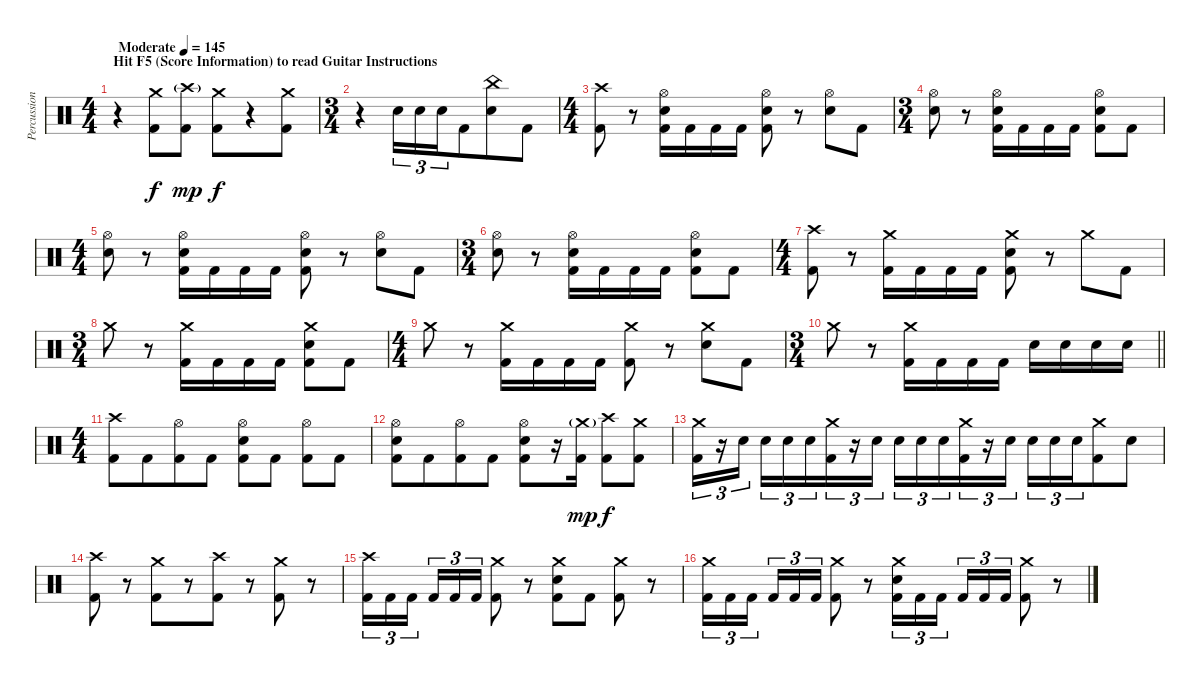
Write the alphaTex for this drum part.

\track ("Percussion" "Percussion") {instrument percussion}
\staff {score}
\articulation defaults
\ts (4 4)
\section ("" "Hit F5 (Score Information) to read Guitar Instructions")
\tempo (145 "Moderate")
\clef neutral
\ks c
r.4{dy f} ("Crash medium (hit)" "Kick (hit) 2").8{beam merge} ("Crash high (hit)"{g} "Kick (hit) 2").8{dy mp} ("Crash medium (hit)" "Kick (hit) 2").8{dy f beam merge} r.4 ("Crash medium (hit)" "Kick (hit) 2").8 |
\ts (3 4)
r.4 "Electric Snare (hit)".16{tu (3 2)} "Electric Snare (hit)".16{tu (3 2)} "Electric Snare (hit)".16{tu (3 2) beam merge} "Kick (hit) 2".8{beam merge} ("China (hit)" "Electric Snare (hit)").8 "Kick (hit) 2".8 |
\ts (4 4)
("Crash high (hit)" "Kick (hit) 2").8 r.8{beam merge} ("Hi-Hat (open)" "Electric Snare (hit)" "Kick (hit) 2").16 "Kick (hit) 2".16{beam merge} "Kick (hit) 2".16 "Kick (hit) 2".16 ("Hi-Hat (open)" "Electric Snare (hit)" "Kick (hit) 2").8 r.8 ("Hi-Hat (open)" "Electric Snare (hit)").8{beam merge} "Kick (hit) 2".8 |
\ts (3 4)
("Hi-Hat (open)" "Electric Snare (hit)").8 r.8{beam merge} ("Hi-Hat (open)" "Electric Snare (hit)" "Kick (hit) 2").16 "Kick (hit) 2".16{beam merge} "Kick (hit) 2".16 "Kick (hit) 2".16 ("Hi-Hat (open)" "Electric Snare (hit)" "Kick (hit) 2").8 "Kick (hit) 2".8 |
\ts (4 4)
("Hi-Hat (open)" "Electric Snare (hit)").8 r.8{beam merge} ("Hi-Hat (open)" "Electric Snare (hit)" "Kick (hit) 2").16 "Kick (hit) 2".16{beam merge} "Kick (hit) 2".16 "Kick (hit) 2".16 ("Hi-Hat (open)" "Electric Snare (hit)" "Kick (hit) 2").8 r.8 ("Hi-Hat (open)" "Electric Snare (hit)").8{beam merge} "Kick (hit) 2".8 |
\ts (3 4)
("Hi-Hat (open)" "Electric Snare (hit)").8 r.8{beam merge} ("Hi-Hat (open)" "Electric Snare (hit)" "Kick (hit) 2").16 "Kick (hit) 2".16{beam merge} "Kick (hit) 2".16 "Kick (hit) 2".16 ("Hi-Hat (open)" "Electric Snare (hit)" "Kick (hit) 2").8 "Kick (hit) 2".8 |
\ts (4 4)
("Crash high (hit)" "Kick (hit) 2").8 r.8{beam merge} ("Crash medium (hit)" "Kick (hit) 2").16 "Kick (hit) 2".16{beam merge} "Kick (hit) 2".16 "Kick (hit) 2".16 ("Crash medium (hit)" "Electric Snare (hit)" "Kick (hit) 2").8 r.8 "Crash medium (hit)".8{beam merge} "Kick (hit) 2".8 |
\ts (3 4)
"Crash medium (hit)".8 r.8{beam merge} ("Crash medium (hit)" "Kick (hit) 2").16 "Kick (hit) 2".16{beam merge} "Kick (hit) 2".16 "Kick (hit) 2".16 ("Crash medium (hit)" "Electric Snare (hit)" "Kick (hit) 2").8 "Kick (hit) 2".8 |
\ts (4 4)
"Crash medium (hit)".8 r.8{beam merge} ("Crash medium (hit)" "Kick (hit) 2").16 "Kick (hit) 2".16{beam merge} "Kick (hit) 2".16 "Kick (hit) 2".16 ("Crash medium (hit)" "Kick (hit) 2").8 r.8 ("Crash medium (hit)" "Electric Snare (hit)").8{beam merge} "Kick (hit) 2".8 |
\ts (3 4)
\barLineRight lightlight "Crash medium (hit)".8
r.8{beam merge} ("Crash medium (hit)" "Kick (hit) 2").16 "Kick (hit) 2".16{beam merge} "Kick (hit) 2".16 "Kick (hit) 2".16 "Electric Snare (hit)".16 "Electric Snare (hit)".16{beam merge} "Electric Snare (hit)".16 "Electric Snare (hit)".16 |
\ts (4 4)
\section ("" "")
("Crash high (hit)" "Kick (hit) 2").8 "Kick (hit) 2".8{beam merge} ("Hi-Hat (open)" "Kick (hit) 2").8{beam merge} "Kick (hit) 2".8 ("Hi-Hat (open)" "Electric Snare (hit)" "Kick (hit) 2").8 "Kick (hit) 2".8 ("Hi-Hat (open)" "Kick (hit) 2").8 "Kick (hit) 2".8 |
("Hi-Hat (open)" "Electric Snare (hit)" "Kick (hit) 2").8 "Kick (hit) 2".8{beam merge} ("Hi-Hat (open)" "Kick (hit) 2").8{beam merge} "Kick (hit) 2".8 ("Hi-Hat (open)" "Electric Snare (hit)" "Kick (hit) 2").8 r.16 ("Crash medium (hit)"{g} "Kick (hit) 2").16{dy mp} ("Crash high (hit)" "Kick (hit) 2").8{dy f} ("Crash medium (hit)" "Kick (hit) 2").8 |
("Crash medium (hit)" "Kick (hit) 2").16{tu (3 2) beam merge} r.16{tu (3 2)} "Electric Snare (hit)".16{tu (3 2) beam splitsecondary} "Electric Snare (hit)".16{tu (3 2)} "Electric Snare (hit)".16{tu (3 2)} "Electric Snare (hit)".16{tu (3 2) beam merge} ("Crash medium (hit)" "Kick (hit) 2").16{tu (3 2) beam merge} r.16{tu (3 2)} "Electric Snare (hit)".16{tu (3 2) beam splitsecondary} "Electric Snare (hit)".16{tu (3 2)} "Electric Snare (hit)".16{tu (3 2)} "Electric Snare (hit)".16{tu (3 2) beam merge} ("Crash medium (hit)" "Kick (hit) 2").16{tu (3 2) beam merge} r.16{tu (3 2)} "Electric Snare (hit)".16{tu (3 2) beam splitsecondary} "Electric Snare (hit)".16{tu (3 2)} "Electric Snare (hit)".16{tu (3 2)} "Electric Snare (hit)".16{tu (3 2) beam merge} ("Crash medium (hit)" "Kick (hit) 2").8{beam merge} "Electric Snare (hit)".8 |
("Crash high (hit)" "Kick (hit) 2").8 r.8 ("Crash medium (hit)" "Kick (hit) 2").8{beam merge} r.8{beam merge} ("Crash high (hit)" "Kick (hit) 2").8 r.8 ("Crash medium (hit)" "Kick (hit) 2").8{beam merge} r.8 |
("Crash high (hit)" "Kick (hit) 2").16{tu (3 2) beam merge} "Kick (hit) 2".16{tu (3 2)} "Kick (hit) 2".16{tu (3 2) beam splitsecondary} "Kick (hit) 2".16{tu (3 2)} "Kick (hit) 2".16{tu (3 2) beam merge} "Kick (hit) 2".16{tu (3 2)} ("Crash medium (hit)" "Kick (hit) 2").8 r.8 ("Crash medium (hit)" "Electric Snare (hit)" "Kick (hit) 2").8{beam merge} "Kick (hit) 2".8 ("Crash medium (hit)" "Kick (hit) 2").8{beam merge} r.8 |
("Crash medium (hit)" "Kick (hit) 2").16{tu (3 2) beam merge} "Kick (hit) 2".16{tu (3 2)} "Kick (hit) 2".16{tu (3 2) beam splitsecondary} "Kick (hit) 2".16{tu (3 2)} "Kick (hit) 2".16{tu (3 2) beam merge} "Kick (hit) 2".16{tu (3 2)} ("Crash medium (hit)" "Kick (hit) 2").8 r.8{beam merge} ("Crash medium (hit)" "Electric Snare (hit)" "Kick (hit) 2").16{tu (3 2) beam merge} "Kick (hit) 2".16{tu (3 2)} "Kick (hit) 2".16{tu (3 2) beam splitsecondary} "Kick (hit) 2".16{tu (3 2)} "Kick (hit) 2".16{tu (3 2) beam merge} "Kick (hit) 2".16{tu (3 2)} ("Crash medium (hit)" "Kick (hit) 2").8 r.8
